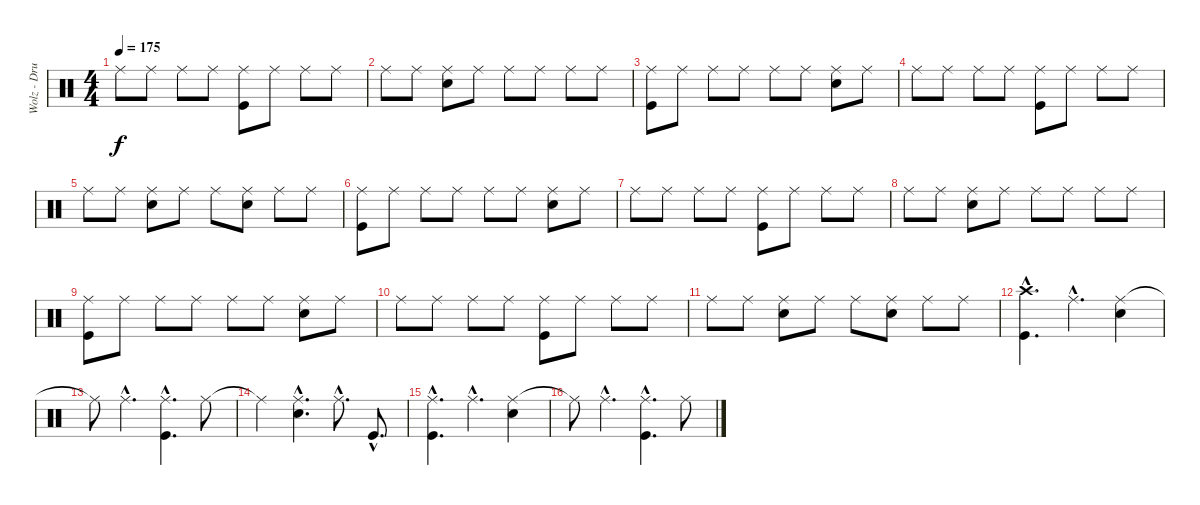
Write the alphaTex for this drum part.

\track ("Wolz - Drums" "Wolz - Dru") {instrument percussion}
\staff {score}
\articulation defaults
\ts (4 4)
\tempo 175
\clef neutral
\ks c "Ride (middle)".8{dy f} "Ride (middle)".8 "Ride (middle)".8 "Ride (middle)".8
("Ride (middle)" "Kick (hit)").8 "Ride (middle)".8 "Ride (middle)".8 "Ride (middle)".8 |
"Ride (middle)".8 "Ride (middle)".8 ("Ride (middle)" "Electric Snare (hit)").8 "Ride (middle)".8 "Ride (middle)".8 "Ride (middle)".8 "Ride (middle)".8 "Ride (middle)".8 |
("Ride (middle)" "Kick (hit)").8 "Ride (middle)".8 "Ride (middle)".8 "Ride (middle)".8 "Ride (middle)".8 "Ride (middle)".8 ("Ride (middle)" "Electric Snare (hit)").8 "Ride (middle)".8 |
"Ride (middle)".8 "Ride (middle)".8 "Ride (middle)".8 "Ride (middle)".8 ("Ride (middle)" "Kick (hit)").8 "Ride (middle)".8 "Ride (middle)".8 "Ride (middle)".8 |
"Ride (middle)".8 "Ride (middle)".8 ("Ride (middle)" "Electric Snare (hit)").8 "Ride (middle)".8 "Ride (middle)".8 ("Ride (middle)" "Electric Snare (hit)").8 "Ride (middle)".8 "Ride (middle)".8 |
("Ride (middle)" "Kick (hit)").8 "Ride (middle)".8 "Ride (middle)".8 "Ride (middle)".8 "Ride (middle)".8 "Ride (middle)".8 ("Ride (middle)" "Electric Snare (hit)").8 "Ride (middle)".8 |
"Ride (middle)".8 "Ride (middle)".8 "Ride (middle)".8 "Ride (middle)".8 ("Ride (middle)" "Kick (hit)").8 "Ride (middle)".8 "Ride (middle)".8 "Ride (middle)".8 |
"Ride (middle)".8 "Ride (middle)".8 ("Ride (middle)" "Electric Snare (hit)").8 "Ride (middle)".8 "Ride (middle)".8 "Ride (middle)".8 "Ride (middle)".8 "Ride (middle)".8 |
("Ride (middle)" "Kick (hit)").8 "Ride (middle)".8 "Ride (middle)".8 "Ride (middle)".8 "Ride (middle)".8 "Ride (middle)".8 ("Ride (middle)" "Electric Snare (hit)").8 "Ride (middle)".8 |
"Ride (middle)".8 "Ride (middle)".8 "Ride (middle)".8 "Ride (middle)".8 ("Ride (middle)" "Kick (hit)").8 "Ride (middle)".8 "Ride (middle)".8 "Ride (middle)".8 |
"Ride (middle)".8 "Ride (middle)".8 ("Ride (middle)" "Electric Snare (hit)").8 "Ride (middle)".8 "Ride (middle)".8 ("Ride (middle)" "Electric Snare (hit)").8 "Ride (middle)".8 "Ride (middle)".8 |
("Crash high (hit)"{hac} "Kick (hit)"{hac}).4{d} "Ride (middle)"{hac}.4{d} ("Ride (middle)" "Electric Snare (hit)").4 |
"Ride (middle)"{t}.8 "Ride (middle)"{hac}.4{d} ("Ride (middle)"{hac} "Kick (hit)"{hac}).4{d} "Ride (middle)".8 |
"Ride (middle)"{t}.4 ("Ride (middle)"{hac} "Electric Snare (hit)"{hac}).4{d} "Ride (middle)"{hac}.8{d} "Kick (hit)"{hac}.8{d} |
("Ride (middle)"{hac} "Kick (hit)"{hac}).4{d} "Ride (middle)"{hac}.4{d} ("Ride (middle)" "Electric Snare (hit)").4 |
"Ride (middle)"{t}.8 "Ride (middle)"{hac}.4{d} ("Ride (middle)"{hac} "Kick (hit)"{hac}).4{d} "Ride (middle)".8
